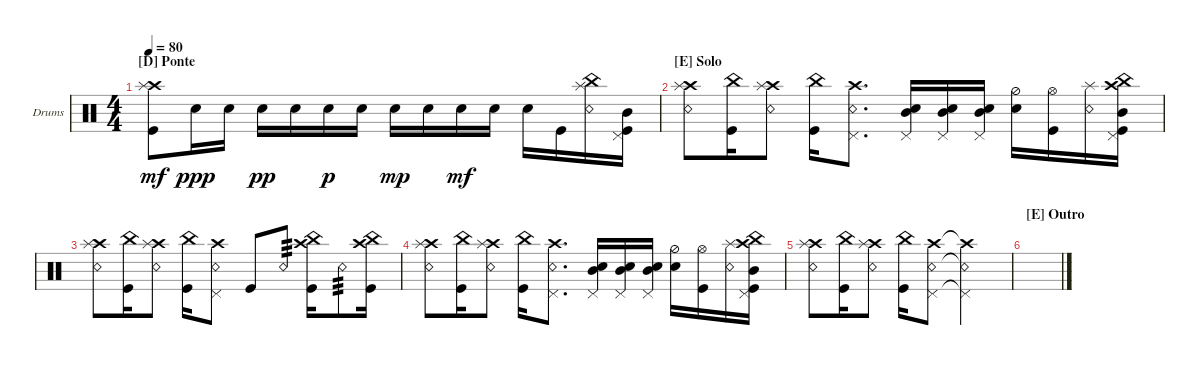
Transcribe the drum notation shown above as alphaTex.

\defaultSystemsLayout 4
\bracketExtendMode groupsimilarinstruments
\firstSystemTrackNameOrientation horizontal
\otherSystemsTrackNameOrientation horizontal
\track ("Bateria" "Drums") {multiBarRest instrument percussion}
\staff {score}
\articulation defaults
\ts (4 4)
\section ("D" "Ponte")
\tempo 80
\clef neutral
\ks c
("Crash high (hit)" "Splash (hit)" "Kick (hit)").8{dy mf} "Snare (hit) 2".16{dy ppp} "Snare (hit) 2".16 "Snare (hit) 2".16{dy pp} "Snare (hit) 2".16 "Snare (hit) 2".16{dy p} "Snare (hit) 2".16 "Snare (hit) 2".16{dy mp} "Snare (hit) 2".16 "Snare (hit) 2".16{dy mf} "Snare (hit) 2".16 "Snare (hit) 2".16 "Kick (hit)".16 ("Snare (rim shot)" "Splash (hit)" "China (hit)").16 ("Mid Tom (hit)" "Pedal Hi-Hat (hit)" "Kick (hit)").16 |
\section ("E" "Solo")
("Crash high (hit)" "Splash (hit)" "Snare (rim shot)").8 ("Kick (hit)" "China (hit)").16 ("Crash high (hit)" "Splash (hit)" "Snare (rim shot)").8 ("Kick (hit)" "China (hit)").16 ("Crash high (hit)" "Snare (rim shot)" "Pedal Hi-Hat (hit)").8{d} ("Snare (hit) 2" "Mid Tom (hit)" "Pedal Hi-Hat (hit)").16 ("Mid Tom (hit)" "Snare (hit) 2" "Pedal Hi-Hat (hit)").16 ("Snare (hit) 2" "Mid Tom (hit)" "Pedal Hi-Hat (hit)").16 ("Snare (hit) 2" "Hi-Hat (half)").16 ("Kick (hit)" "Hi-Hat (open)").16 ("Snare (rim shot)" "Splash (hit)").16 ("Mid Tom (hit)" "Pedal Hi-Hat (hit)" "Kick (hit)" "Crash high (hit)" "China (hit)").16 |
("Crash high (hit)" "Splash (hit)" "Snare (rim shot)").8 ("Kick (hit)" "China (hit)").16 ("Crash high (hit)" "Splash (hit)" "Snare (rim shot)").8 ("Kick (hit)" "China (hit)").16 ("Crash high (hit)" "Snare (rim shot)" "Pedal Hi-Hat (hit)").8 "Kick (hit)".8 "Snare (rim shot)".8{tp 3} ("Kick (hit)" "Crash high (hit)" "China (hit)").16 "Snare (rim shot)".8{tp 3} ("China (hit)" "Crash high (hit)" "Kick (hit)").16 |
("Crash high (hit)" "Splash (hit)" "Snare (rim shot)").8 ("Kick (hit)" "China (hit)").16 ("Crash high (hit)" "Splash (hit)" "Snare (rim shot)").8 ("Kick (hit)" "China (hit)").16 ("Crash high (hit)" "Snare (rim shot)" "Pedal Hi-Hat (hit)").8{d} ("Snare (hit) 2" "Mid Tom (hit)" "Pedal Hi-Hat (hit)").16 ("Mid Tom (hit)" "Snare (hit) 2" "Pedal Hi-Hat (hit)").16 ("Snare (hit) 2" "Mid Tom (hit)" "Pedal Hi-Hat (hit)").16 ("Snare (hit) 2" "Hi-Hat (half)").16 ("Kick (hit)" "Hi-Hat (open)").16 ("Snare (rim shot)" "Splash (hit)").16 ("Mid Tom (hit)" "Pedal Hi-Hat (hit)" "Kick (hit)" "Crash high (hit)" "China (hit)").16 |
("Crash high (hit)" "Splash (hit)" "Snare (rim shot)").8 ("Kick (hit)" "China (hit)").16 ("Crash high (hit)" "Splash (hit)" "Snare (rim shot)").8 ("Kick (hit)" "China (hit)").16 ("Crash high (hit)" "Snare (rim shot)" "Pedal Hi-Hat (hit)").8 ("Crash high (hit)"{t} "Snare (rim shot)"{t} "Pedal Hi-Hat (hit)"{t}).2 |
\section ("E" "Outro")
